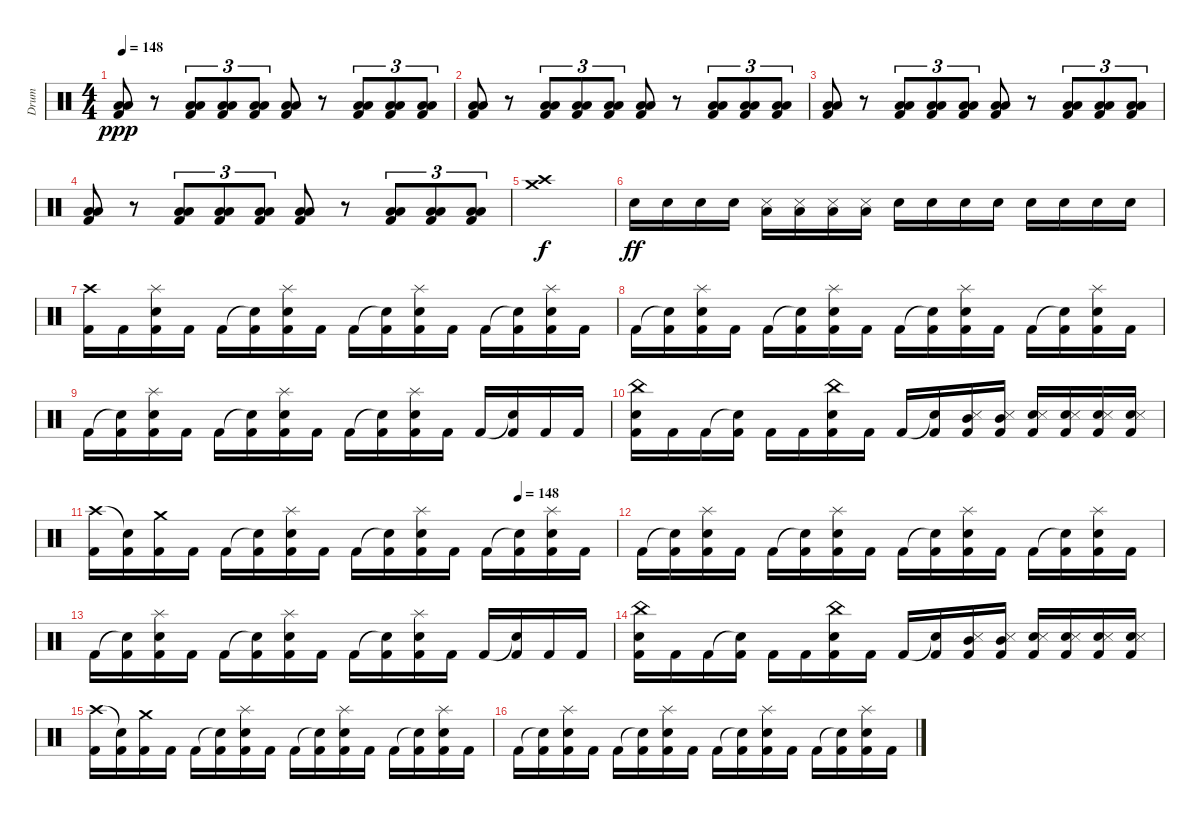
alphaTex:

\track ("Drum" "Drum") {instrument percussion}
\staff {score}
\articulation defaults
\ts (4 4)
\tempo 148
\clef neutral
\ks c
("Low Tom (hit)" "Low Floor Tom (hit)" "Kick (hit) 2").8{dy ppp} r.8 ("Low Tom (hit)" "Low Floor Tom (hit)" "Kick (hit) 2").8{tu (3 2)} ("Low Tom (hit)" "Low Floor Tom (hit)" "Kick (hit) 2").8{tu (3 2)} ("Low Tom (hit)" "Low Floor Tom (hit)" "Kick (hit) 2").8{tu (3 2)} ("Low Tom (hit)" "Low Floor Tom (hit)" "Kick (hit) 2").8 r.8 ("Low Tom (hit)" "Low Floor Tom (hit)" "Kick (hit) 2").8{tu (3 2)} ("Low Tom (hit)" "Low Floor Tom (hit)" "Kick (hit) 2").8{tu (3 2)} ("Low Tom (hit)" "Low Floor Tom (hit)" "Kick (hit) 2").8{tu (3 2)} |
("Low Tom (hit)" "Low Floor Tom (hit)" "Kick (hit) 2").8 r.8 ("Low Tom (hit)" "Low Floor Tom (hit)" "Kick (hit) 2").8{tu (3 2)} ("Low Tom (hit)" "Low Floor Tom (hit)" "Kick (hit) 2").8{tu (3 2)} ("Low Tom (hit)" "Low Floor Tom (hit)" "Kick (hit) 2").8{tu (3 2)} ("Low Tom (hit)" "Low Floor Tom (hit)" "Kick (hit) 2").8 r.8 ("Low Tom (hit)" "Low Floor Tom (hit)" "Kick (hit) 2").8{tu (3 2)} ("Low Tom (hit)" "Low Floor Tom (hit)" "Kick (hit) 2").8{tu (3 2)} ("Low Tom (hit)" "Low Floor Tom (hit)" "Kick (hit) 2").8{tu (3 2)} |
("Low Tom (hit)" "Low Floor Tom (hit)" "Kick (hit) 2").8 r.8 ("Low Tom (hit)" "Low Floor Tom (hit)" "Kick (hit) 2").8{tu (3 2)} ("Low Tom (hit)" "Low Floor Tom (hit)" "Kick (hit) 2").8{tu (3 2)} ("Low Tom (hit)" "Low Floor Tom (hit)" "Kick (hit) 2").8{tu (3 2)} ("Low Tom (hit)" "Low Floor Tom (hit)" "Kick (hit) 2").8 r.8 ("Low Tom (hit)" "Low Floor Tom (hit)" "Kick (hit) 2").8{tu (3 2)} ("Low Tom (hit)" "Low Floor Tom (hit)" "Kick (hit) 2").8{tu (3 2)} ("Low Tom (hit)" "Low Floor Tom (hit)" "Kick (hit) 2").8{tu (3 2)} |
("Low Tom (hit)" "Low Floor Tom (hit)" "Kick (hit) 2").8 r.8 ("Low Tom (hit)" "Low Floor Tom (hit)" "Kick (hit) 2").8{tu (3 2)} ("Low Tom (hit)" "Low Floor Tom (hit)" "Kick (hit) 2").8{tu (3 2)} ("Low Tom (hit)" "Low Floor Tom (hit)" "Kick (hit) 2").8{tu (3 2)} ("Low Tom (hit)" "Low Floor Tom (hit)" "Kick (hit) 2").8 r.8 ("Low Tom (hit)" "Low Floor Tom (hit)" "Kick (hit) 2").8{tu (3 2)} ("Low Tom (hit)" "Low Floor Tom (hit)" "Kick (hit) 2").8{tu (3 2)} ("Low Tom (hit)" "Low Floor Tom (hit)" "Kick (hit) 2").8{tu (3 2)} |
("Crash medium (hit)" "Crash high (hit)").1{dy f} |
"Snare (hit) 2".16{dy ff volume 16} "Snare (hit) 2".16 "Snare (hit) 2".16 "Snare (hit) 2".16 ("Low Tom (hit)" "Snare (side stick) 3").16 ("Low Tom (hit)" "Snare (side stick) 3").16 ("Low Tom (hit)" "Snare (side stick) 3").16 ("Low Tom (hit)" "Snare (side stick) 3").16 "Snare (hit) 2".16 "Snare (hit) 2".16 "Snare (hit) 2".16 "Snare (hit) 2".16 "Snare (hit) 2".16 "Snare (hit) 2".16 "Snare (hit) 2".16 "Snare (hit) 2".16 |
("Crash high (hit)" "Kick (hit) 2").16 "Kick (hit) 2".16 ("Splash (hit)" "Snare (hit) 2" "Kick (hit) 2").16 "Kick (hit) 2".16 "Kick (hit) 2".16 ("Snare (hit)"{t} "Kick (hit) 2").16 ("Splash (hit)" "Snare (hit) 2" "Kick (hit) 2").16 "Kick (hit) 2".16 "Kick (hit) 2".16 ("Snare (hit)"{t} "Kick (hit) 2").16 ("Splash (hit)" "Snare (hit) 2" "Kick (hit) 2").16 "Kick (hit) 2".16 "Kick (hit) 2".16 ("Snare (hit)"{t} "Kick (hit) 2").16 ("Splash (hit)" "Snare (hit) 2" "Kick (hit) 2").16 "Kick (hit) 2".16 |
"Kick (hit) 2".16 ("Snare (hit)"{t} "Kick (hit) 2").16 ("Splash (hit)" "Snare (hit) 2" "Kick (hit) 2").16 "Kick (hit) 2".16 "Kick (hit) 2".16 ("Snare (hit)"{t} "Kick (hit) 2").16 ("Splash (hit)" "Snare (hit) 2" "Kick (hit) 2").16 "Kick (hit) 2".16 "Kick (hit) 2".16 ("Snare (hit)"{t} "Kick (hit) 2").16 ("Splash (hit)" "Snare (hit) 2" "Kick (hit) 2").16 "Kick (hit) 2".16 "Kick (hit) 2".16 ("Snare (hit)"{t} "Kick (hit) 2").16 ("Splash (hit)" "Snare (hit) 2" "Kick (hit) 2").16 "Kick (hit) 2".16 |
"Kick (hit) 2".16 ("Snare (hit)"{t} "Kick (hit) 2").16 ("Splash (hit)" "Snare (hit) 2" "Kick (hit) 2").16 "Kick (hit) 2".16 "Kick (hit) 2".16 ("Snare (hit)"{t} "Kick (hit) 2").16 ("Splash (hit)" "Snare (hit) 2" "Kick (hit) 2").16 "Kick (hit) 2".16 "Kick (hit) 2".16 ("Snare (hit)"{t} "Kick (hit) 2").16 ("Splash (hit)" "Snare (hit) 2" "Kick (hit) 2").16 "Kick (hit) 2".16 "Kick (hit) 2".16 ("Snare (hit)"{t} "Kick (hit) 2").16 "Kick (hit) 2".16 "Kick (hit) 2".16 |
("China (hit)" "Snare (hit) 2" "Kick (hit) 2").16 "Kick (hit) 2".16 "Kick (hit) 2".16 ("Snare (hit)"{t} "Kick (hit) 2").16 "Kick (hit) 2".16 "Kick (hit) 2".16 ("China (hit)" "Snare (hit) 2" "Kick (hit) 2").16 "Kick (hit) 2".16 "Kick (hit) 2".16 ("Snare (hit)"{t} "Kick (hit) 2").16 ("Mid Tom (hit)" "Snare (side stick) 3" "Kick (hit) 2").16 ("Mid Tom (hit)" "Snare (side stick) 3" "Kick (hit) 2").16 ("Snare (hit) 2" "Snare (side stick) 3" "Kick (hit) 2").16 ("Snare (hit) 2" "Snare (side stick) 3" "Kick (hit) 2").16 ("Snare (hit) 2" "Snare (side stick) 3" "Kick (hit) 2").16 ("Snare (hit) 2" "Snare (side stick) 3" "Kick (hit) 2").16 |
\tempo (148 0.8125)
("Crash high (hit)" "Kick (hit) 2").16 ("Snare (hit)"{t} "Kick (hit) 2").16 ("Crash medium (hit)" "Kick (hit) 2").16 "Kick (hit) 2".16 "Kick (hit) 2".16 ("Snare (hit)"{t} "Kick (hit) 2").16 ("Splash (hit)" "Snare (hit) 2" "Kick (hit) 2").16 "Kick (hit) 2".16 "Kick (hit) 2".16 ("Snare (hit)"{t} "Kick (hit) 2").16 ("Splash (hit)" "Snare (hit) 2" "Kick (hit) 2").16 "Kick (hit) 2".16 "Kick (hit) 2".16 ("Snare (hit)"{t} "Kick (hit) 2").16 ("Splash (hit)" "Snare (hit) 2" "Kick (hit) 2").16 "Kick (hit) 2".16 |
"Kick (hit) 2".16 ("Snare (hit)"{t} "Kick (hit) 2").16 ("Splash (hit)" "Snare (hit) 2" "Kick (hit) 2").16 "Kick (hit) 2".16 "Kick (hit) 2".16 ("Snare (hit)"{t} "Kick (hit) 2").16 ("Splash (hit)" "Snare (hit) 2" "Kick (hit) 2").16 "Kick (hit) 2".16 "Kick (hit) 2".16 ("Snare (hit)"{t} "Kick (hit) 2").16 ("Splash (hit)" "Snare (hit) 2" "Kick (hit) 2").16 "Kick (hit) 2".16 "Kick (hit) 2".16 ("Snare (hit)"{t} "Kick (hit) 2").16 ("Splash (hit)" "Snare (hit) 2" "Kick (hit) 2").16 "Kick (hit) 2".16 |
"Kick (hit) 2".16 ("Snare (hit)"{t} "Kick (hit) 2").16 ("Splash (hit)" "Snare (hit) 2" "Kick (hit) 2").16 "Kick (hit) 2".16 "Kick (hit) 2".16 ("Snare (hit)"{t} "Kick (hit) 2").16 ("Splash (hit)" "Snare (hit) 2" "Kick (hit) 2").16 "Kick (hit) 2".16 "Kick (hit) 2".16 ("Snare (hit)"{t} "Kick (hit) 2").16 ("Splash (hit)" "Snare (hit) 2" "Kick (hit) 2").16 "Kick (hit) 2".16 "Kick (hit) 2".16 ("Snare (hit)"{t} "Kick (hit) 2").16 "Kick (hit) 2".16 "Kick (hit) 2".16 |
("China (hit)" "Snare (hit) 2" "Kick (hit) 2").16 "Kick (hit) 2".16 "Kick (hit) 2".16 ("Snare (hit)"{t} "Kick (hit) 2").16 "Kick (hit) 2".16 "Kick (hit) 2".16 ("China (hit)" "Snare (hit) 2" "Kick (hit) 2").16 "Kick (hit) 2".16 "Kick (hit) 2".16 ("Snare (hit)"{t} "Kick (hit) 2").16 ("Mid Tom (hit)" "Snare (side stick) 3" "Kick (hit) 2").16 ("Mid Tom (hit)" "Snare (side stick) 3" "Kick (hit) 2").16 ("Snare (hit) 2" "Snare (side stick) 3" "Kick (hit) 2").16 ("Snare (hit) 2" "Snare (side stick) 3" "Kick (hit) 2").16 ("Snare (hit) 2" "Snare (side stick) 3" "Kick (hit) 2").16 ("Snare (hit) 2" "Snare (side stick) 3" "Kick (hit) 2").16 |
("Crash high (hit)" "Kick (hit) 2").16 ("Snare (hit)"{t} "Kick (hit) 2").16 ("Crash medium (hit)" "Kick (hit) 2").16 "Kick (hit) 2".16 "Kick (hit) 2".16 ("Snare (hit)"{t} "Kick (hit) 2").16 ("Splash (hit)" "Snare (hit) 2" "Kick (hit) 2").16 "Kick (hit) 2".16 "Kick (hit) 2".16 ("Snare (hit)"{t} "Kick (hit) 2").16 ("Splash (hit)" "Snare (hit) 2" "Kick (hit) 2").16 "Kick (hit) 2".16 "Kick (hit) 2".16 ("Snare (hit)"{t} "Kick (hit) 2").16 ("Splash (hit)" "Snare (hit) 2" "Kick (hit) 2").16 "Kick (hit) 2".16 |
"Kick (hit) 2".16 ("Snare (hit)"{t} "Kick (hit) 2").16 ("Splash (hit)" "Snare (hit) 2" "Kick (hit) 2").16 "Kick (hit) 2".16 "Kick (hit) 2".16 ("Snare (hit)"{t} "Kick (hit) 2").16 ("Splash (hit)" "Snare (hit) 2" "Kick (hit) 2").16 "Kick (hit) 2".16 "Kick (hit) 2".16 ("Snare (hit)"{t} "Kick (hit) 2").16 ("Splash (hit)" "Snare (hit) 2" "Kick (hit) 2").16 "Kick (hit) 2".16 "Kick (hit) 2".16 ("Snare (hit)"{t} "Kick (hit) 2").16 ("Splash (hit)" "Snare (hit) 2" "Kick (hit) 2").16 "Kick (hit) 2".16
